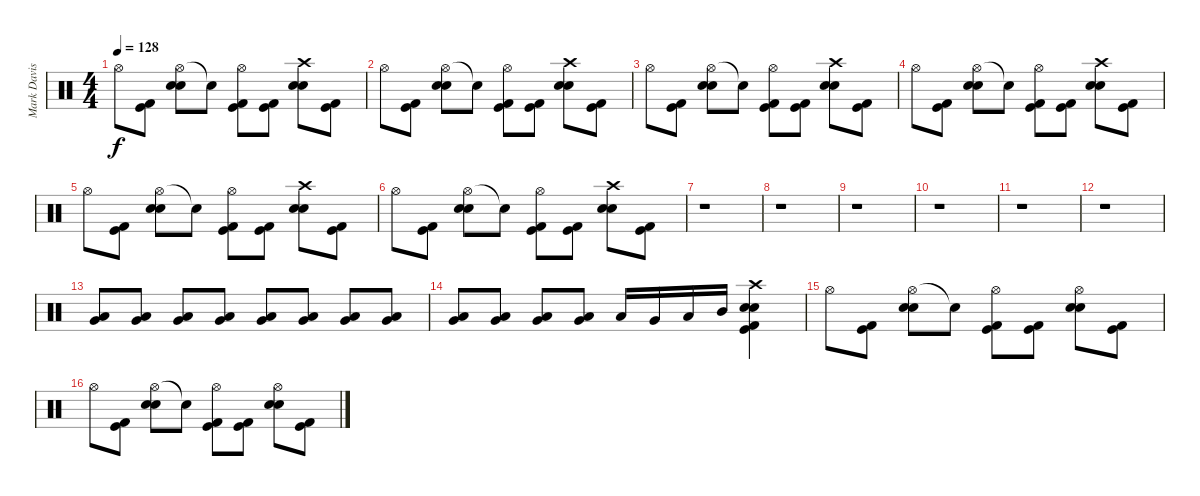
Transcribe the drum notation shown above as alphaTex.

\track ("Mark Davis (drums)" "Mark Davis") {instrument percussion}
\staff {score}
\articulation defaults
\ts (4 4)
\tempo 128
\clef neutral
\ks c "Hi-Hat (open)".8{dy f}
("Kick (hit)" "Kick (hit) 2").8 ("Hi-Hat (open)" "Snare (hit) 2" "Electric Snare (hit)").8 "Snare (hit)"{t}.8 ("Hi-Hat (open)" "Kick (hit)" "Kick (hit) 2").8 ("Kick (hit)" "Kick (hit) 2").8 ("Crash high (hit)" "Snare (hit) 2" "Electric Snare (hit)").8 ("Kick (hit)" "Kick (hit) 2").8 |
"Hi-Hat (open)".8 ("Kick (hit)" "Kick (hit) 2").8 ("Hi-Hat (open)" "Snare (hit) 2" "Electric Snare (hit)").8 "Snare (hit)"{t}.8 ("Hi-Hat (open)" "Kick (hit)" "Kick (hit) 2").8 ("Kick (hit)" "Kick (hit) 2").8 ("Crash high (hit)" "Snare (hit) 2" "Electric Snare (hit)").8 ("Kick (hit)" "Kick (hit) 2").8 |
"Hi-Hat (open)".8 ("Kick (hit)" "Kick (hit) 2").8 ("Hi-Hat (open)" "Snare (hit) 2" "Electric Snare (hit)").8 "Snare (hit)"{t}.8 ("Hi-Hat (open)" "Kick (hit)" "Kick (hit) 2").8 ("Kick (hit)" "Kick (hit) 2").8 ("Crash high (hit)" "Snare (hit) 2" "Electric Snare (hit)").8 ("Kick (hit)" "Kick (hit) 2").8 |
"Hi-Hat (open)".8 ("Kick (hit)" "Kick (hit) 2").8 ("Hi-Hat (open)" "Snare (hit) 2" "Electric Snare (hit)").8 "Snare (hit)"{t}.8 ("Hi-Hat (open)" "Kick (hit)" "Kick (hit) 2").8 ("Kick (hit)" "Kick (hit) 2").8 ("Crash high (hit)" "Snare (hit) 2" "Electric Snare (hit)").8 ("Kick (hit)" "Kick (hit) 2").8 |
"Hi-Hat (open)".8 ("Kick (hit)" "Kick (hit) 2").8 ("Hi-Hat (open)" "Snare (hit) 2" "Electric Snare (hit)").8 "Snare (hit)"{t}.8 ("Hi-Hat (open)" "Kick (hit)" "Kick (hit) 2").8 ("Kick (hit)" "Kick (hit) 2").8 ("Crash high (hit)" "Snare (hit) 2" "Electric Snare (hit)").8 ("Kick (hit)" "Kick (hit) 2").8 |
"Hi-Hat (open)".8 ("Kick (hit)" "Kick (hit) 2").8 ("Hi-Hat (open)" "Snare (hit) 2" "Electric Snare (hit)").8 "Snare (hit)"{t}.8 ("Hi-Hat (open)" "Kick (hit)" "Kick (hit) 2").8 ("Kick (hit)" "Kick (hit) 2").8 ("Crash high (hit)" "Snare (hit) 2" "Electric Snare (hit)").8 ("Kick (hit)" "Kick (hit) 2").8 |
r.1 |
r.1 |
r.1 |
r.1 |
r.1 |
r.1 |
("Low Floor Tom (hit)" "Very Low Tom (hit)").8 ("Low Floor Tom (hit)" "Very Low Tom (hit)").8 ("Low Floor Tom (hit)" "Very Low Tom (hit)").8 ("Low Floor Tom (hit)" "Very Low Tom (hit)").8 ("Low Floor Tom (hit)" "Very Low Tom (hit)").8 ("Low Floor Tom (hit)" "Very Low Tom (hit)").8 ("Low Floor Tom (hit)" "Very Low Tom (hit)").8 ("Low Floor Tom (hit)" "Very Low Tom (hit)").8 |
("Low Floor Tom (hit)" "Very Low Tom (hit)").8 ("Low Floor Tom (hit)" "Very Low Tom (hit)").8 ("Low Floor Tom (hit)" "Very Low Tom (hit)").8 ("Low Floor Tom (hit)" "Very Low Tom (hit)").8 "Low Floor Tom (hit)".16 "Very Low Tom (hit)".16 "Low Tom (hit)".16 "Mid Tom (hit)".16 ("Crash high (hit)" "Electric Snare (hit)" "Snare (hit) 2" "Kick (hit)" "Kick (hit) 2").4 |
"Hi-Hat (open)".8 ("Kick (hit)" "Kick (hit) 2").8 ("Hi-Hat (open)" "Snare (hit) 2" "Electric Snare (hit)").8 "Snare (hit)"{t}.8 ("Hi-Hat (open)" "Kick (hit)" "Kick (hit) 2").8 ("Kick (hit)" "Kick (hit) 2").8 ("Hi-Hat (open)" "Snare (hit) 2" "Electric Snare (hit)").8 ("Kick (hit)" "Kick (hit) 2").8 |
"Hi-Hat (open)".8 ("Kick (hit)" "Kick (hit) 2").8 ("Hi-Hat (open)" "Snare (hit) 2" "Electric Snare (hit)").8 "Snare (hit)"{t}.8 ("Hi-Hat (open)" "Kick (hit)" "Kick (hit) 2").8 ("Kick (hit)" "Kick (hit) 2").8 ("Hi-Hat (open)" "Snare (hit) 2" "Electric Snare (hit)").8 ("Kick (hit)" "Kick (hit) 2").8
